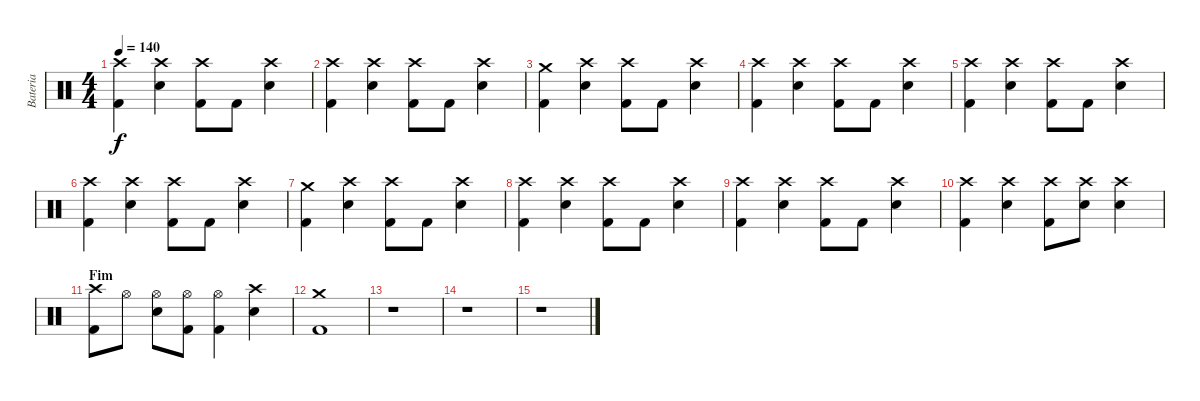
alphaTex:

\track ("Bateria" "Bateria") {instrument percussion}
\staff {score}
\articulation defaults
\ts (4 4)
\tempo 140
\clef neutral
\ks c
("Crash high (hit)" "Kick (hit) 2").4{dy f} ("Crash high (hit)" "Electric Snare (hit)").4 ("Crash high (hit)" "Kick (hit) 2").8 "Kick (hit) 2".8 ("Crash high (hit)" "Electric Snare (hit)").4 |
("Crash high (hit)" "Kick (hit) 2").4 ("Crash high (hit)" "Electric Snare (hit)").4 ("Crash high (hit)" "Kick (hit) 2").8 "Kick (hit) 2".8 ("Crash high (hit)" "Electric Snare (hit)").4 |
("Crash medium (hit)" "Kick (hit) 2").4 ("Crash high (hit)" "Electric Snare (hit)").4 ("Crash high (hit)" "Kick (hit) 2").8 "Kick (hit) 2".8 ("Crash high (hit)" "Electric Snare (hit)").4 |
("Crash high (hit)" "Kick (hit) 2").4 ("Crash high (hit)" "Electric Snare (hit)").4 ("Crash high (hit)" "Kick (hit) 2").8 "Kick (hit) 2".8 ("Crash high (hit)" "Electric Snare (hit)").4 |
("Crash high (hit)" "Kick (hit) 2").4 ("Crash high (hit)" "Electric Snare (hit)").4 ("Crash high (hit)" "Kick (hit) 2").8 "Kick (hit) 2".8 ("Crash high (hit)" "Electric Snare (hit)").4 |
("Crash high (hit)" "Kick (hit) 2").4 ("Crash high (hit)" "Electric Snare (hit)").4 ("Crash high (hit)" "Kick (hit) 2").8 "Kick (hit) 2".8 ("Crash high (hit)" "Electric Snare (hit)").4 |
("Crash medium (hit)" "Kick (hit) 2").4 ("Crash high (hit)" "Electric Snare (hit)").4 ("Crash high (hit)" "Kick (hit) 2").8 "Kick (hit) 2".8 ("Crash high (hit)" "Electric Snare (hit)").4 |
("Crash high (hit)" "Kick (hit) 2").4 ("Crash high (hit)" "Electric Snare (hit)").4 ("Crash high (hit)" "Kick (hit) 2").8 "Kick (hit) 2".8 ("Crash high (hit)" "Electric Snare (hit)").4 |
("Crash high (hit)" "Kick (hit) 2").4 ("Crash high (hit)" "Electric Snare (hit)").4 ("Crash high (hit)" "Kick (hit) 2").8 "Kick (hit) 2".8 ("Crash high (hit)" "Electric Snare (hit)").4 |
("Crash high (hit)" "Kick (hit) 2").4 ("Crash high (hit)" "Electric Snare (hit)").4 ("Crash high (hit)" "Kick (hit) 2").8 ("Crash high (hit)" "Electric Snare (hit)").8 ("Crash high (hit)" "Electric Snare (hit)").4 |
\section ("" "Fim")
("Crash high (hit)" "Kick (hit) 2").8 "Hi-Hat (open)".8 ("Hi-Hat (open)" "Electric Snare (hit)").8 ("Hi-Hat (open)" "Kick (hit) 2").8 ("Hi-Hat (open)" "Kick (hit) 2").4 ("Crash high (hit)" "Electric Snare (hit)").4 |
("Crash medium (hit)" "Kick (hit) 2").1 |
r.1 |
r.1 |
r.1
